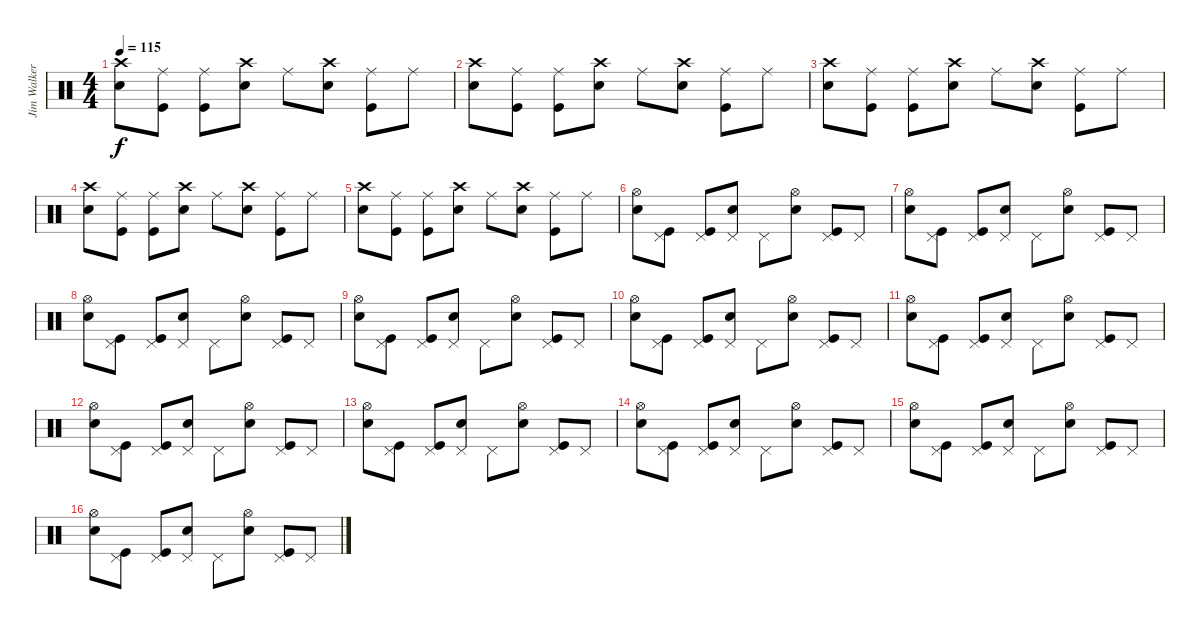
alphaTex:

\track ("Jim Walker-Drums" "Jim Walker") {instrument percussion}
\staff {score}
\articulation defaults
\ts (4 4)
\tempo 115
\clef neutral
\ks c
("Crash high (hit)" "Electric Snare (hit)").8{dy f} ("Ride (middle)" "Kick (hit)").8 ("Ride (middle)" "Kick (hit)").8 ("Crash high (hit)" "Electric Snare (hit)").8 "Ride (middle)".8 ("Crash high (hit)" "Electric Snare (hit)").8 ("Ride (middle)" "Kick (hit)").8 "Ride (middle)".8 |
("Crash high (hit)" "Electric Snare (hit)").8 ("Ride (middle)" "Kick (hit)").8 ("Ride (middle)" "Kick (hit)").8 ("Crash high (hit)" "Electric Snare (hit)").8 "Ride (middle)".8 ("Crash high (hit)" "Electric Snare (hit)").8 ("Ride (middle)" "Kick (hit)").8 "Ride (middle)".8 |
("Crash high (hit)" "Electric Snare (hit)").8 ("Ride (middle)" "Kick (hit)").8 ("Ride (middle)" "Kick (hit)").8 ("Crash high (hit)" "Electric Snare (hit)").8 "Ride (middle)".8 ("Crash high (hit)" "Electric Snare (hit)").8 ("Ride (middle)" "Kick (hit)").8 "Ride (middle)".8 |
("Crash high (hit)" "Electric Snare (hit)").8 ("Ride (middle)" "Kick (hit)").8 ("Ride (middle)" "Kick (hit)").8 ("Crash high (hit)" "Electric Snare (hit)").8 "Ride (middle)".8 ("Crash high (hit)" "Electric Snare (hit)").8 ("Ride (middle)" "Kick (hit)").8 "Ride (middle)".8 |
("Crash high (hit)" "Electric Snare (hit)").8 ("Ride (middle)" "Kick (hit)").8 ("Ride (middle)" "Kick (hit)").8 ("Crash high (hit)" "Electric Snare (hit)").8 "Ride (middle)".8 ("Crash high (hit)" "Electric Snare (hit)").8 ("Ride (middle)" "Kick (hit)").8 "Ride (middle)".8 |
("Hi-Hat (open)" "Electric Snare (hit)").8 ("Pedal Hi-Hat (hit)" "Kick (hit)").8 ("Pedal Hi-Hat (hit)" "Kick (hit)").8 ("Pedal Hi-Hat (hit)" "Electric Snare (hit)").8 "Pedal Hi-Hat (hit)".8 ("Hi-Hat (open)" "Electric Snare (hit)").8 ("Pedal Hi-Hat (hit)" "Kick (hit)").8 "Pedal Hi-Hat (hit)".8 |
("Hi-Hat (open)" "Electric Snare (hit)").8 ("Pedal Hi-Hat (hit)" "Kick (hit)").8 ("Pedal Hi-Hat (hit)" "Kick (hit)").8 ("Pedal Hi-Hat (hit)" "Electric Snare (hit)").8 "Pedal Hi-Hat (hit)".8 ("Hi-Hat (open)" "Electric Snare (hit)").8 ("Pedal Hi-Hat (hit)" "Kick (hit)").8 "Pedal Hi-Hat (hit)".8 |
("Hi-Hat (open)" "Electric Snare (hit)").8 ("Pedal Hi-Hat (hit)" "Kick (hit)").8 ("Pedal Hi-Hat (hit)" "Kick (hit)").8 ("Pedal Hi-Hat (hit)" "Electric Snare (hit)").8 "Pedal Hi-Hat (hit)".8 ("Hi-Hat (open)" "Electric Snare (hit)").8 ("Pedal Hi-Hat (hit)" "Kick (hit)").8 "Pedal Hi-Hat (hit)".8 |
("Hi-Hat (open)" "Electric Snare (hit)").8 ("Pedal Hi-Hat (hit)" "Kick (hit)").8 ("Pedal Hi-Hat (hit)" "Kick (hit)").8 ("Pedal Hi-Hat (hit)" "Electric Snare (hit)").8 "Pedal Hi-Hat (hit)".8 ("Hi-Hat (open)" "Electric Snare (hit)").8 ("Pedal Hi-Hat (hit)" "Kick (hit)").8 "Pedal Hi-Hat (hit)".8 |
("Hi-Hat (open)" "Electric Snare (hit)").8 ("Pedal Hi-Hat (hit)" "Kick (hit)").8 ("Pedal Hi-Hat (hit)" "Kick (hit)").8 ("Pedal Hi-Hat (hit)" "Electric Snare (hit)").8 "Pedal Hi-Hat (hit)".8 ("Hi-Hat (open)" "Electric Snare (hit)").8 ("Pedal Hi-Hat (hit)" "Kick (hit)").8 "Pedal Hi-Hat (hit)".8 |
("Hi-Hat (open)" "Electric Snare (hit)").8 ("Pedal Hi-Hat (hit)" "Kick (hit)").8 ("Pedal Hi-Hat (hit)" "Kick (hit)").8 ("Pedal Hi-Hat (hit)" "Electric Snare (hit)").8 "Pedal Hi-Hat (hit)".8 ("Hi-Hat (open)" "Electric Snare (hit)").8 ("Pedal Hi-Hat (hit)" "Kick (hit)").8 "Pedal Hi-Hat (hit)".8 |
("Hi-Hat (open)" "Electric Snare (hit)").8 ("Pedal Hi-Hat (hit)" "Kick (hit)").8 ("Pedal Hi-Hat (hit)" "Kick (hit)").8 ("Pedal Hi-Hat (hit)" "Electric Snare (hit)").8 "Pedal Hi-Hat (hit)".8 ("Hi-Hat (open)" "Electric Snare (hit)").8 ("Pedal Hi-Hat (hit)" "Kick (hit)").8 "Pedal Hi-Hat (hit)".8 |
("Hi-Hat (open)" "Electric Snare (hit)").8 ("Pedal Hi-Hat (hit)" "Kick (hit)").8 ("Pedal Hi-Hat (hit)" "Kick (hit)").8 ("Pedal Hi-Hat (hit)" "Electric Snare (hit)").8 "Pedal Hi-Hat (hit)".8 ("Hi-Hat (open)" "Electric Snare (hit)").8 ("Pedal Hi-Hat (hit)" "Kick (hit)").8 "Pedal Hi-Hat (hit)".8 |
("Hi-Hat (open)" "Electric Snare (hit)").8 ("Pedal Hi-Hat (hit)" "Kick (hit)").8 ("Pedal Hi-Hat (hit)" "Kick (hit)").8 ("Pedal Hi-Hat (hit)" "Electric Snare (hit)").8 "Pedal Hi-Hat (hit)".8 ("Hi-Hat (open)" "Electric Snare (hit)").8 ("Pedal Hi-Hat (hit)" "Kick (hit)").8 "Pedal Hi-Hat (hit)".8 |
("Hi-Hat (open)" "Electric Snare (hit)").8 ("Pedal Hi-Hat (hit)" "Kick (hit)").8 ("Pedal Hi-Hat (hit)" "Kick (hit)").8 ("Pedal Hi-Hat (hit)" "Electric Snare (hit)").8 "Pedal Hi-Hat (hit)".8 ("Hi-Hat (open)" "Electric Snare (hit)").8 ("Pedal Hi-Hat (hit)" "Kick (hit)").8 "Pedal Hi-Hat (hit)".8 |
("Hi-Hat (open)" "Electric Snare (hit)").8 ("Pedal Hi-Hat (hit)" "Kick (hit)").8 ("Pedal Hi-Hat (hit)" "Kick (hit)").8 ("Pedal Hi-Hat (hit)" "Electric Snare (hit)").8 "Pedal Hi-Hat (hit)".8 ("Hi-Hat (open)" "Electric Snare (hit)").8 ("Pedal Hi-Hat (hit)" "Kick (hit)").8 "Pedal Hi-Hat (hit)".8
